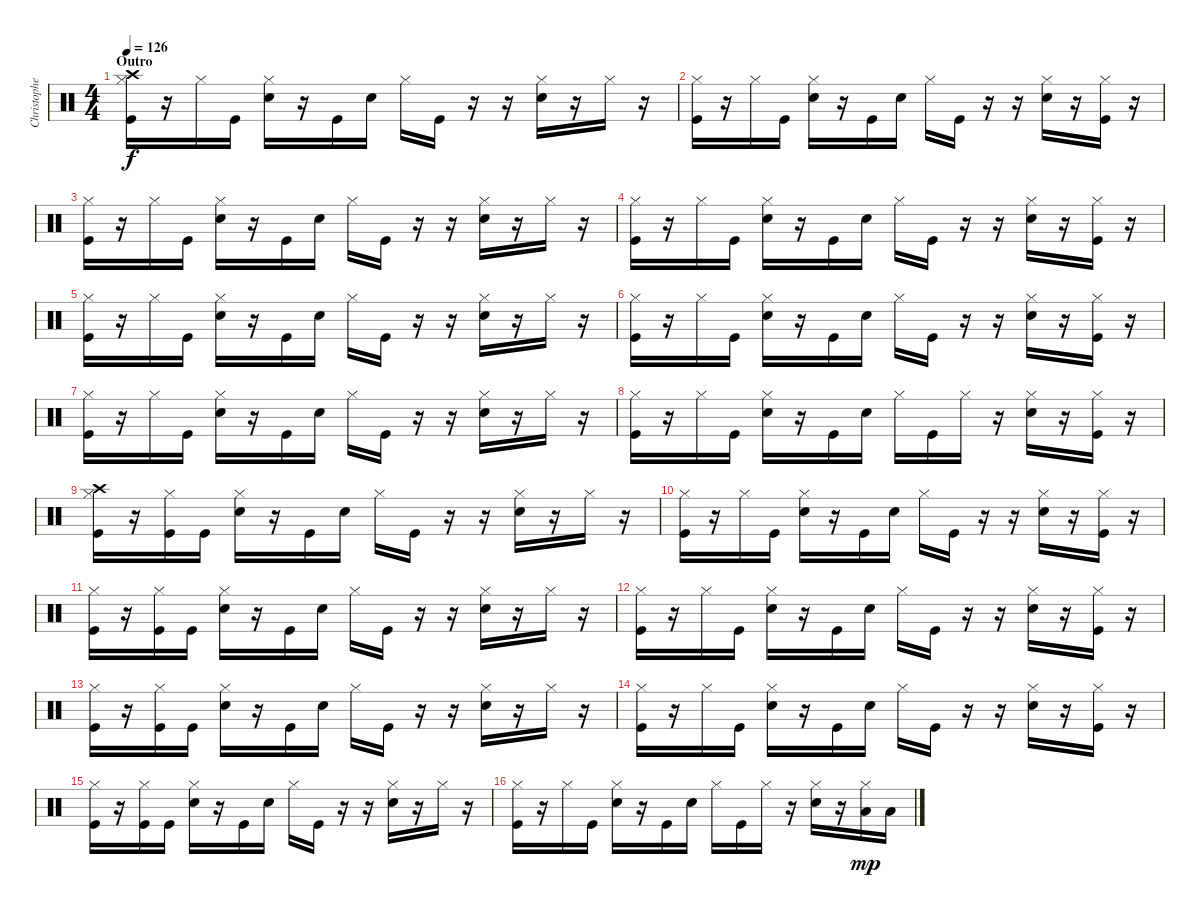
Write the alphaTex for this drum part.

\track ("Christopher - Drums" "Christophe") {mute instrument percussion}
\staff {score}
\articulation defaults
\ts (4 4)
\section ("" "Outro")
\tempo 126
\clef neutral
\ks c
("Crash high (hit)" "Hi-Hat (closed)" "Kick (hit)").16{dy f} r.16 "Hi-Hat (closed)".16 "Kick (hit)".16 ("Hi-Hat (closed)" "Snare (hit) 2").16 r.16 "Kick (hit)".16 "Snare (hit) 2".16 "Hi-Hat (closed)".16 "Kick (hit)".16 r.16 r.16 ("Hi-Hat (closed)" "Snare (hit) 2").16 r.16 "Hi-Hat (closed)".16 r.16 |
("Hi-Hat (closed)" "Kick (hit)").16 r.16 "Hi-Hat (closed)".16 "Kick (hit)".16 ("Hi-Hat (closed)" "Snare (hit) 2").16 r.16 "Kick (hit)".16 "Snare (hit) 2".16 "Hi-Hat (closed)".16 "Kick (hit)".16 r.16 r.16 ("Hi-Hat (closed)" "Snare (hit) 2").16 r.16 ("Hi-Hat (closed)" "Kick (hit)").16 r.16 |
("Hi-Hat (closed)" "Kick (hit)").16 r.16 "Hi-Hat (closed)".16 "Kick (hit)".16 ("Hi-Hat (closed)" "Snare (hit) 2").16 r.16 "Kick (hit)".16 "Snare (hit) 2".16 "Hi-Hat (closed)".16 "Kick (hit)".16 r.16 r.16 ("Hi-Hat (closed)" "Snare (hit) 2").16 r.16 "Hi-Hat (closed)".16 r.16 |
("Hi-Hat (closed)" "Kick (hit)").16 r.16 "Hi-Hat (closed)".16 "Kick (hit)".16 ("Hi-Hat (closed)" "Snare (hit) 2").16 r.16 "Kick (hit)".16 "Snare (hit) 2".16 "Hi-Hat (closed)".16 "Kick (hit)".16 r.16 r.16 ("Hi-Hat (closed)" "Snare (hit) 2").16 r.16 ("Hi-Hat (closed)" "Kick (hit)").16 r.16 |
("Hi-Hat (closed)" "Kick (hit)").16 r.16 "Hi-Hat (closed)".16 "Kick (hit)".16 ("Hi-Hat (closed)" "Snare (hit) 2").16 r.16 "Kick (hit)".16 "Snare (hit) 2".16 "Hi-Hat (closed)".16 "Kick (hit)".16 r.16 r.16 ("Hi-Hat (closed)" "Snare (hit) 2").16 r.16 "Hi-Hat (closed)".16 r.16 |
("Hi-Hat (closed)" "Kick (hit)").16 r.16 "Hi-Hat (closed)".16 "Kick (hit)".16 ("Hi-Hat (closed)" "Snare (hit) 2").16 r.16 "Kick (hit)".16 "Snare (hit) 2".16 "Hi-Hat (closed)".16 "Kick (hit)".16 r.16 r.16 ("Hi-Hat (closed)" "Snare (hit) 2").16 r.16 ("Hi-Hat (closed)" "Kick (hit)").16 r.16 |
("Hi-Hat (closed)" "Kick (hit)").16 r.16 "Hi-Hat (closed)".16 "Kick (hit)".16 ("Hi-Hat (closed)" "Snare (hit) 2").16 r.16 "Kick (hit)".16 "Snare (hit) 2".16 "Hi-Hat (closed)".16 "Kick (hit)".16 r.16 r.16 ("Hi-Hat (closed)" "Snare (hit) 2").16 r.16 "Hi-Hat (closed)".16 r.16 |
("Hi-Hat (closed)" "Kick (hit)").16 r.16 "Hi-Hat (closed)".16 "Kick (hit)".16 ("Hi-Hat (closed)" "Snare (hit) 2").16 r.16 "Kick (hit)".16 "Snare (hit) 2".16 "Hi-Hat (closed)".16 "Kick (hit)".16 "Hi-Hat (closed)".16 r.16 ("Hi-Hat (closed)" "Snare (hit) 2").16 r.16 ("Hi-Hat (closed)" "Kick (hit)").16 r.16 |
("Crash high (hit)" "Hi-Hat (closed)" "Kick (hit)").16 r.16 ("Hi-Hat (closed)" "Kick (hit)").16 "Kick (hit)".16 ("Hi-Hat (closed)" "Snare (hit) 2").16 r.16 "Kick (hit)".16 "Snare (hit) 2".16 "Hi-Hat (closed)".16 "Kick (hit)".16 r.16 r.16 ("Hi-Hat (closed)" "Snare (hit) 2").16 r.16 "Hi-Hat (closed)".16 r.16 |
("Hi-Hat (closed)" "Kick (hit)").16 r.16 "Hi-Hat (closed)".16 "Kick (hit)".16 ("Hi-Hat (closed)" "Snare (hit) 2").16 r.16 "Kick (hit)".16 "Snare (hit) 2".16 "Hi-Hat (closed)".16 "Kick (hit)".16 r.16 r.16 ("Hi-Hat (closed)" "Snare (hit) 2").16 r.16 ("Hi-Hat (closed)" "Kick (hit)").16 r.16 |
("Hi-Hat (closed)" "Kick (hit)").16 r.16 ("Hi-Hat (closed)" "Kick (hit)").16 "Kick (hit)".16 ("Hi-Hat (closed)" "Snare (hit) 2").16 r.16 "Kick (hit)".16 "Snare (hit) 2".16 "Hi-Hat (closed)".16 "Kick (hit)".16 r.16 r.16 ("Hi-Hat (closed)" "Snare (hit) 2").16 r.16 "Hi-Hat (closed)".16 r.16 |
("Hi-Hat (closed)" "Kick (hit)").16 r.16 "Hi-Hat (closed)".16 "Kick (hit)".16 ("Hi-Hat (closed)" "Snare (hit) 2").16 r.16 "Kick (hit)".16 "Snare (hit) 2".16 "Hi-Hat (closed)".16 "Kick (hit)".16 r.16 r.16 ("Hi-Hat (closed)" "Snare (hit) 2").16 r.16 ("Hi-Hat (closed)" "Kick (hit)").16 r.16 |
("Hi-Hat (closed)" "Kick (hit)").16 r.16 ("Hi-Hat (closed)" "Kick (hit)").16 "Kick (hit)".16 ("Hi-Hat (closed)" "Snare (hit) 2").16 r.16 "Kick (hit)".16 "Snare (hit) 2".16 "Hi-Hat (closed)".16 "Kick (hit)".16 r.16 r.16 ("Hi-Hat (closed)" "Snare (hit) 2").16 r.16 "Hi-Hat (closed)".16 r.16 |
("Hi-Hat (closed)" "Kick (hit)").16 r.16 "Hi-Hat (closed)".16 "Kick (hit)".16 ("Hi-Hat (closed)" "Snare (hit) 2").16 r.16 "Kick (hit)".16 "Snare (hit) 2".16 "Hi-Hat (closed)".16 "Kick (hit)".16 r.16 r.16 ("Hi-Hat (closed)" "Snare (hit) 2").16 r.16 ("Hi-Hat (closed)" "Kick (hit)").16 r.16 |
("Hi-Hat (closed)" "Kick (hit)").16 r.16 ("Hi-Hat (closed)" "Kick (hit)").16 "Kick (hit)".16 ("Hi-Hat (closed)" "Snare (hit) 2").16 r.16 "Kick (hit)".16 "Snare (hit) 2".16 "Hi-Hat (closed)".16 "Kick (hit)".16 r.16 r.16 ("Hi-Hat (closed)" "Snare (hit) 2").16 r.16 "Hi-Hat (closed)".16 r.16 |
("Hi-Hat (closed)" "Kick (hit)").16 r.16 "Hi-Hat (closed)".16 "Kick (hit)".16 ("Hi-Hat (closed)" "Snare (hit) 2").16 r.16 "Kick (hit)".16 "Snare (hit) 2".16 "Hi-Hat (closed)".16 "Kick (hit)".16 "Hi-Hat (closed)".16 r.16 ("Hi-Hat (closed)" "Snare (hit) 2").16 r.16 ("Hi-Hat (closed)" "Low Floor Tom (hit)").16{dy mp} "Low Floor Tom (hit)".16
